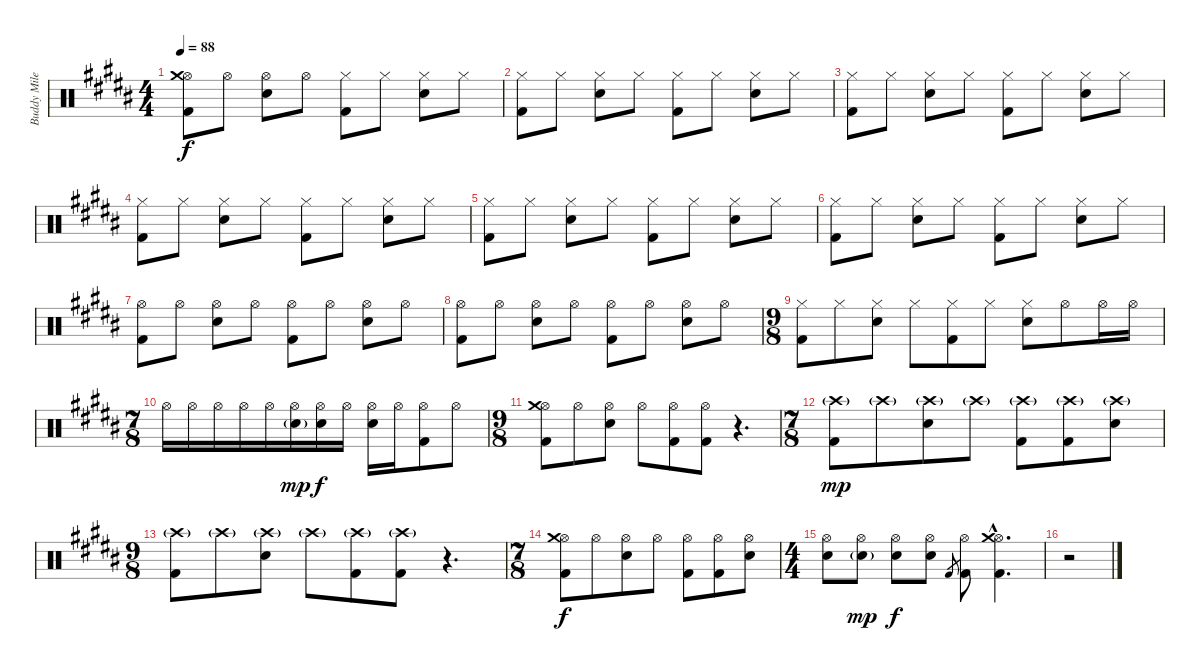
\track ("Buddy Miles" "Buddy Mile") {instrument percussion}
\staff {score}
\articulation defaults
\ts (4 4)
\tempo 88
\clef neutral
\ks b
("Hi-Hat (open)" "Kick (hit) 2" "Crash medium (hit)").8{dy f} "Hi-Hat (open)".8 ("Hi-Hat (open)" "Electric Snare (hit)").8 "Hi-Hat (open)".8 ("Hi-Hat (closed)" "Kick (hit) 2").8 "Hi-Hat (closed)".8 ("Hi-Hat (closed)" "Electric Snare (hit)").8 "Hi-Hat (closed)".8 |
("Hi-Hat (closed)" "Kick (hit) 2").8 "Hi-Hat (closed)".8 ("Hi-Hat (closed)" "Electric Snare (hit)").8 "Hi-Hat (closed)".8 ("Hi-Hat (closed)" "Kick (hit) 2").8 "Hi-Hat (closed)".8 ("Hi-Hat (closed)" "Electric Snare (hit)").8 "Hi-Hat (closed)".8 |
("Hi-Hat (closed)" "Kick (hit) 2").8 "Hi-Hat (closed)".8 ("Hi-Hat (closed)" "Electric Snare (hit)").8 "Hi-Hat (closed)".8 ("Hi-Hat (closed)" "Kick (hit) 2").8 "Hi-Hat (closed)".8 ("Hi-Hat (closed)" "Electric Snare (hit)").8 "Hi-Hat (closed)".8 |
("Hi-Hat (closed)" "Kick (hit) 2").8 "Hi-Hat (closed)".8 ("Hi-Hat (closed)" "Electric Snare (hit)").8 "Hi-Hat (closed)".8 ("Hi-Hat (closed)" "Kick (hit) 2").8 "Hi-Hat (closed)".8 ("Hi-Hat (closed)" "Electric Snare (hit)").8 "Hi-Hat (closed)".8 |
("Hi-Hat (closed)" "Kick (hit) 2").8 "Hi-Hat (closed)".8 ("Hi-Hat (closed)" "Electric Snare (hit)").8 "Hi-Hat (closed)".8 ("Hi-Hat (closed)" "Kick (hit) 2").8 "Hi-Hat (closed)".8 ("Hi-Hat (closed)" "Electric Snare (hit)").8 "Hi-Hat (closed)".8 |
("Hi-Hat (closed)" "Kick (hit) 2").8 "Hi-Hat (closed)".8 ("Hi-Hat (closed)" "Electric Snare (hit)").8 "Hi-Hat (closed)".8 ("Hi-Hat (closed)" "Kick (hit) 2").8 "Hi-Hat (closed)".8 ("Hi-Hat (closed)" "Electric Snare (hit)").8 "Hi-Hat (closed)".8 |
("Hi-Hat (open)" "Kick (hit) 2").8 "Hi-Hat (open)".8 ("Hi-Hat (open)" "Electric Snare (hit)").8 "Hi-Hat (open)".8 ("Hi-Hat (open)" "Kick (hit) 2").8 "Hi-Hat (open)".8 ("Hi-Hat (open)" "Electric Snare (hit)").8 "Hi-Hat (open)".8 |
("Hi-Hat (open)" "Kick (hit) 2").8 "Hi-Hat (open)".8 ("Hi-Hat (open)" "Electric Snare (hit)").8 "Hi-Hat (open)".8 ("Hi-Hat (open)" "Kick (hit) 2").8 "Hi-Hat (open)".8 ("Hi-Hat (open)" "Electric Snare (hit)").8 "Hi-Hat (open)".8 |
\ts (9 8)
("Hi-Hat (closed)" "Kick (hit) 2").8 "Hi-Hat (closed)".8 ("Hi-Hat (closed)" "Electric Snare (hit)").8 "Hi-Hat (closed)".8 ("Hi-Hat (closed)" "Kick (hit) 2").8 "Hi-Hat (closed)".8 ("Hi-Hat (closed)" "Electric Snare (hit)").8 "Hi-Hat (open)".8 "Hi-Hat (open)".16 "Hi-Hat (open)".16 |
\ts (7 8)
"Hi-Hat (open)".16 "Hi-Hat (open)".16 "Hi-Hat (open)".16 "Hi-Hat (open)".16 "Hi-Hat (open)".16 ("Hi-Hat (open)" "Electric Snare (hit)"{g}).16{dy mp} ("Hi-Hat (open)" "Electric Snare (hit)").16{dy f} "Hi-Hat (open)".16 ("Hi-Hat (open)" "Electric Snare (hit)").16 "Hi-Hat (open)".16 ("Hi-Hat (open)" "Kick (hit) 2").8 "Hi-Hat (open)".8 |
\ts (9 8)
("Hi-Hat (open)" "Kick (hit) 2" "Crash medium (hit)").8 "Hi-Hat (open)".8 ("Hi-Hat (open)" "Electric Snare (hit)").8 "Hi-Hat (open)".8 ("Hi-Hat (open)" "Kick (hit) 2").8 ("Hi-Hat (open)" "Kick (hit) 2").8 r.4{d} |
\ts (7 8)
("Crash high (hit)"{g} "Kick (hit) 2").8{dy mp} "Crash high (hit)"{g}.8 ("Crash high (hit)"{g} "Electric Snare (hit)").8 "Crash high (hit)"{g}.8 ("Crash high (hit)"{g} "Kick (hit) 2").8 ("Crash high (hit)"{g} "Kick (hit) 2").8 ("Crash high (hit)"{g} "Electric Snare (hit)").8 |
\ts (9 8)
("Crash high (hit)"{g} "Kick (hit) 2").8 "Crash high (hit)"{g}.8 ("Crash high (hit)"{g} "Electric Snare (hit)").8 "Crash high (hit)"{g}.8 ("Crash high (hit)"{g} "Kick (hit) 2").8 ("Crash high (hit)"{g} "Kick (hit) 2").8 r.4{d} |
\ts (7 8)
("Hi-Hat (open)" "Kick (hit) 2" "Crash medium (hit)").8{dy f} "Hi-Hat (open)".8 ("Hi-Hat (open)" "Electric Snare (hit)").8 "Hi-Hat (open)".8 ("Hi-Hat (open)" "Kick (hit) 2").8 ("Hi-Hat (open)" "Kick (hit) 2").8 ("Hi-Hat (open)" "Electric Snare (hit)").8 |
\ts (4 4)
("Hi-Hat (open)" "Electric Snare (hit)").8 ("Hi-Hat (open)" "Electric Snare (hit)"{g}).8{dy mp} ("Hi-Hat (open)" "Electric Snare (hit)").8{dy f} ("Hi-Hat (open)" "Electric Snare (hit)").8 "Kick (hit) 2".8{gr} ("Hi-Hat (open)" "Kick (hit) 2").8 ("Hi-Hat (open)"{hac} "Kick (hit) 2"{hac} "Crash medium (hit)"{hac}).4{d} |
r.2
